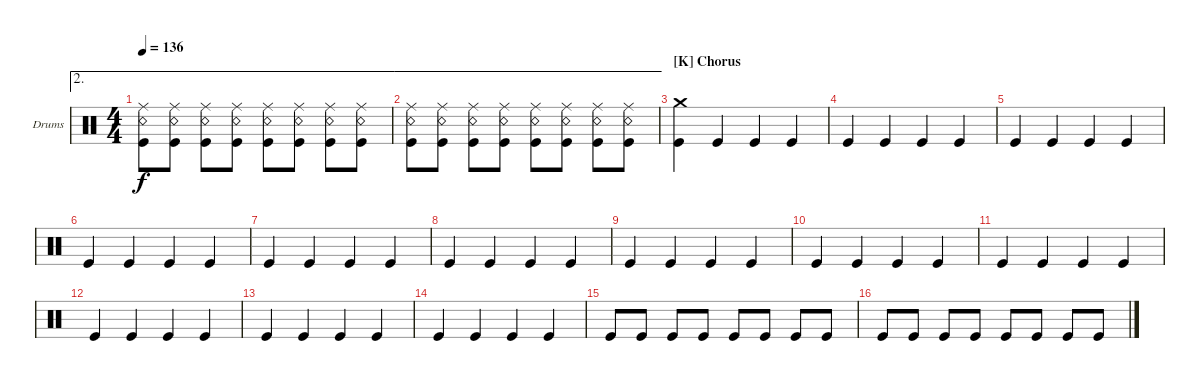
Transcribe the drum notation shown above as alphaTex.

\defaultSystemsLayout 4
\bracketExtendMode groupsimilarinstruments
\firstSystemTrackNameOrientation horizontal
\otherSystemsTrackNameOrientation horizontal
\track ("Drums" "Drums") {instrument percussion}
\staff {score}
\articulation defaults
\ae 2
\ts (4 4)
\tempo 136
\clef neutral
\ks c
("Kick (hit)" "Snare (rim shot)" "Ride (middle)").8{dy f} ("Kick (hit)" "Snare (rim shot)" "Ride (middle)").8 ("Kick (hit)" "Snare (rim shot)" "Ride (middle)").8 ("Kick (hit)" "Snare (rim shot)" "Ride (middle)").8 ("Kick (hit)" "Snare (rim shot)" "Ride (middle)").8 ("Kick (hit)" "Snare (rim shot)" "Ride (middle)").8 ("Kick (hit)" "Snare (rim shot)" "Ride (middle)").8 ("Kick (hit)" "Snare (rim shot)" "Ride (middle)").8 |
\ae 2
("Kick (hit)" "Snare (rim shot)" "Ride (middle)").8 ("Kick (hit)" "Snare (rim shot)" "Ride (middle)").8 ("Kick (hit)" "Snare (rim shot)" "Ride (middle)").8 ("Kick (hit)" "Snare (rim shot)" "Ride (middle)").8 ("Kick (hit)" "Snare (rim shot)" "Ride (middle)").8 ("Kick (hit)" "Snare (rim shot)" "Ride (middle)").8 ("Kick (hit)" "Snare (rim shot)" "Ride (middle)").8 ("Kick (hit)" "Snare (rim shot)" "Ride (middle)").8 |
\section ("K" "Chorus")
("Kick (hit)" "Crash medium (hit)").4 "Kick (hit)".4 "Kick (hit)".4 "Kick (hit)".4 |
"Kick (hit)".4 "Kick (hit)".4 "Kick (hit)".4 "Kick (hit)".4 |
"Kick (hit)".4 "Kick (hit)".4 "Kick (hit)".4 "Kick (hit)".4 |
"Kick (hit)".4 "Kick (hit)".4 "Kick (hit)".4 "Kick (hit)".4 |
"Kick (hit)".4 "Kick (hit)".4 "Kick (hit)".4 "Kick (hit)".4 |
"Kick (hit)".4 "Kick (hit)".4 "Kick (hit)".4 "Kick (hit)".4 |
"Kick (hit)".4 "Kick (hit)".4 "Kick (hit)".4 "Kick (hit)".4 |
"Kick (hit)".4 "Kick (hit)".4 "Kick (hit)".4 "Kick (hit)".4 |
"Kick (hit)".4 "Kick (hit)".4 "Kick (hit)".4 "Kick (hit)".4 |
"Kick (hit)".4 "Kick (hit)".4 "Kick (hit)".4 "Kick (hit)".4 |
"Kick (hit)".4 "Kick (hit)".4 "Kick (hit)".4 "Kick (hit)".4 |
"Kick (hit)".4 "Kick (hit)".4 "Kick (hit)".4 "Kick (hit)".4 |
"Kick (hit)".8 "Kick (hit)".8 "Kick (hit)".8 "Kick (hit)".8 "Kick (hit)".8 "Kick (hit)".8 "Kick (hit)".8 "Kick (hit)".8 |
"Kick (hit)".8 "Kick (hit)".8 "Kick (hit)".8 "Kick (hit)".8 "Kick (hit)".8 "Kick (hit)".8 "Kick (hit)".8 "Kick (hit)".8
